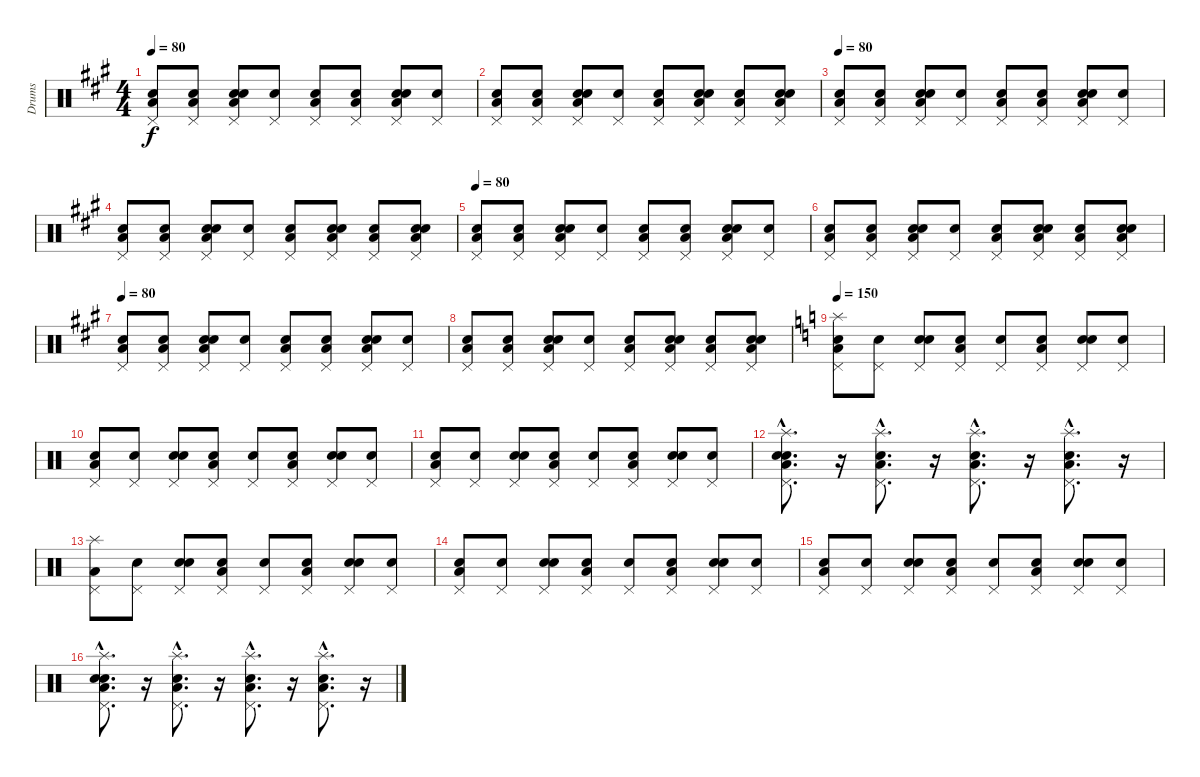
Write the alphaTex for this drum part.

\track ("Drums" "Drums") {instrument percussion}
\staff {score}
\articulation defaults
\ts (4 4)
\tempo 80
\clef neutral
\ks f#minor
("Snare (hit)" "Low Floor Tom (hit)" "Pedal Hi-Hat (hit)").8{dy f} ("Snare (hit)" "Low Floor Tom (hit)" "Pedal Hi-Hat (hit)").8 ("Snare (hit)" "Electric Snare (hit)" "Low Floor Tom (hit)" "Pedal Hi-Hat (hit)").8 ("Snare (hit)" "Pedal Hi-Hat (hit)").8 ("Snare (hit)" "Low Floor Tom (hit)" "Pedal Hi-Hat (hit)").8 ("Snare (hit)" "Low Floor Tom (hit)" "Pedal Hi-Hat (hit)").8 ("Snare (hit)" "Electric Snare (hit)" "Low Floor Tom (hit)" "Pedal Hi-Hat (hit)").8 ("Snare (hit)" "Pedal Hi-Hat (hit)").8 |
("Snare (hit)" "Low Floor Tom (hit)" "Pedal Hi-Hat (hit)").8 ("Snare (hit)" "Low Floor Tom (hit)" "Pedal Hi-Hat (hit)").8 ("Snare (hit)" "Electric Snare (hit)" "Low Floor Tom (hit)" "Pedal Hi-Hat (hit)").8 ("Snare (hit)" "Pedal Hi-Hat (hit)").8 ("Snare (hit)" "Low Floor Tom (hit)" "Pedal Hi-Hat (hit)").8 ("Snare (hit)" "Electric Snare (hit)" "Low Floor Tom (hit)" "Pedal Hi-Hat (hit)").8 ("Snare (hit)" "Low Floor Tom (hit)" "Pedal Hi-Hat (hit)").8 ("Snare (hit)" "Electric Snare (hit)" "Low Floor Tom (hit)" "Pedal Hi-Hat (hit)").8 |
\tempo 80
("Snare (hit)" "Low Floor Tom (hit)" "Pedal Hi-Hat (hit)").8 ("Snare (hit)" "Low Floor Tom (hit)" "Pedal Hi-Hat (hit)").8 ("Snare (hit)" "Electric Snare (hit)" "Low Floor Tom (hit)" "Pedal Hi-Hat (hit)").8 ("Snare (hit)" "Pedal Hi-Hat (hit)").8 ("Snare (hit)" "Low Floor Tom (hit)" "Pedal Hi-Hat (hit)").8 ("Snare (hit)" "Low Floor Tom (hit)" "Pedal Hi-Hat (hit)").8 ("Snare (hit)" "Electric Snare (hit)" "Low Floor Tom (hit)" "Pedal Hi-Hat (hit)").8 ("Snare (hit)" "Pedal Hi-Hat (hit)").8 |
("Snare (hit)" "Low Floor Tom (hit)" "Pedal Hi-Hat (hit)").8 ("Snare (hit)" "Low Floor Tom (hit)" "Pedal Hi-Hat (hit)").8 ("Snare (hit)" "Electric Snare (hit)" "Low Floor Tom (hit)" "Pedal Hi-Hat (hit)").8 ("Snare (hit)" "Pedal Hi-Hat (hit)").8 ("Snare (hit)" "Low Floor Tom (hit)" "Pedal Hi-Hat (hit)").8 ("Snare (hit)" "Electric Snare (hit)" "Low Floor Tom (hit)" "Pedal Hi-Hat (hit)").8 ("Snare (hit)" "Low Floor Tom (hit)" "Pedal Hi-Hat (hit)").8 ("Snare (hit)" "Electric Snare (hit)" "Low Floor Tom (hit)" "Pedal Hi-Hat (hit)").8 |
\tempo 80
("Snare (hit)" "Low Floor Tom (hit)" "Pedal Hi-Hat (hit)").8 ("Snare (hit)" "Low Floor Tom (hit)" "Pedal Hi-Hat (hit)").8 ("Snare (hit)" "Electric Snare (hit)" "Low Floor Tom (hit)" "Pedal Hi-Hat (hit)").8 ("Snare (hit)" "Pedal Hi-Hat (hit)").8 ("Snare (hit)" "Low Floor Tom (hit)" "Pedal Hi-Hat (hit)").8 ("Snare (hit)" "Low Floor Tom (hit)" "Pedal Hi-Hat (hit)").8 ("Snare (hit)" "Electric Snare (hit)" "Low Floor Tom (hit)" "Pedal Hi-Hat (hit)").8 ("Snare (hit)" "Pedal Hi-Hat (hit)").8 |
("Snare (hit)" "Low Floor Tom (hit)" "Pedal Hi-Hat (hit)").8 ("Snare (hit)" "Low Floor Tom (hit)" "Pedal Hi-Hat (hit)").8 ("Snare (hit)" "Electric Snare (hit)" "Low Floor Tom (hit)" "Pedal Hi-Hat (hit)").8 ("Snare (hit)" "Pedal Hi-Hat (hit)").8 ("Snare (hit)" "Low Floor Tom (hit)" "Pedal Hi-Hat (hit)").8 ("Snare (hit)" "Electric Snare (hit)" "Low Floor Tom (hit)" "Pedal Hi-Hat (hit)").8 ("Snare (hit)" "Low Floor Tom (hit)" "Pedal Hi-Hat (hit)").8 ("Snare (hit)" "Electric Snare (hit)" "Low Floor Tom (hit)" "Pedal Hi-Hat (hit)").8 |
\tempo 80
("Snare (hit)" "Low Floor Tom (hit)" "Pedal Hi-Hat (hit)").8 ("Snare (hit)" "Low Floor Tom (hit)" "Pedal Hi-Hat (hit)").8 ("Snare (hit)" "Electric Snare (hit)" "Low Floor Tom (hit)" "Pedal Hi-Hat (hit)").8 ("Snare (hit)" "Pedal Hi-Hat (hit)").8 ("Snare (hit)" "Low Floor Tom (hit)" "Pedal Hi-Hat (hit)").8 ("Snare (hit)" "Low Floor Tom (hit)" "Pedal Hi-Hat (hit)").8 ("Snare (hit)" "Electric Snare (hit)" "Low Floor Tom (hit)" "Pedal Hi-Hat (hit)").8 ("Snare (hit)" "Pedal Hi-Hat (hit)").8 |
("Snare (hit)" "Low Floor Tom (hit)" "Pedal Hi-Hat (hit)").8 ("Snare (hit)" "Low Floor Tom (hit)" "Pedal Hi-Hat (hit)").8 ("Snare (hit)" "Electric Snare (hit)" "Low Floor Tom (hit)" "Pedal Hi-Hat (hit)").8 ("Snare (hit)" "Pedal Hi-Hat (hit)").8 ("Snare (hit)" "Low Floor Tom (hit)" "Pedal Hi-Hat (hit)").8 ("Snare (hit)" "Electric Snare (hit)" "Low Floor Tom (hit)" "Pedal Hi-Hat (hit)").8 ("Snare (hit)" "Low Floor Tom (hit)" "Pedal Hi-Hat (hit)").8 ("Snare (hit)" "Electric Snare (hit)" "Low Floor Tom (hit)" "Pedal Hi-Hat (hit)").8 |
\tempo 150
\ks c
("Snare (hit)" "Low Floor Tom (hit)" "Pedal Hi-Hat (hit)" "Splash (hit)").8 ("Snare (hit)" "Pedal Hi-Hat (hit)").8 ("Snare (hit)" "Electric Snare (hit)" "Pedal Hi-Hat (hit)").8 ("Snare (hit)" "Low Floor Tom (hit)" "Pedal Hi-Hat (hit)").8 ("Snare (hit)" "Pedal Hi-Hat (hit)").8 ("Snare (hit)" "Low Floor Tom (hit)" "Pedal Hi-Hat (hit)").8 ("Snare (hit)" "Electric Snare (hit)" "Pedal Hi-Hat (hit)").8 ("Snare (hit)" "Pedal Hi-Hat (hit)").8 |
("Snare (hit)" "Low Floor Tom (hit)" "Pedal Hi-Hat (hit)").8 ("Snare (hit)" "Pedal Hi-Hat (hit)").8 ("Snare (hit)" "Electric Snare (hit)" "Pedal Hi-Hat (hit)").8 ("Snare (hit)" "Low Floor Tom (hit)" "Pedal Hi-Hat (hit)").8 ("Snare (hit)" "Pedal Hi-Hat (hit)").8 ("Snare (hit)" "Low Floor Tom (hit)" "Pedal Hi-Hat (hit)").8 ("Snare (hit)" "Electric Snare (hit)" "Pedal Hi-Hat (hit)").8 ("Snare (hit)" "Pedal Hi-Hat (hit)").8 |
("Snare (hit)" "Low Floor Tom (hit)" "Pedal Hi-Hat (hit)").8 ("Snare (hit)" "Pedal Hi-Hat (hit)").8 ("Snare (hit)" "Electric Snare (hit)" "Pedal Hi-Hat (hit)").8 ("Snare (hit)" "Low Floor Tom (hit)" "Pedal Hi-Hat (hit)").8 ("Snare (hit)" "Pedal Hi-Hat (hit)").8 ("Snare (hit)" "Low Floor Tom (hit)" "Pedal Hi-Hat (hit)").8 ("Snare (hit)" "Electric Snare (hit)" "Pedal Hi-Hat (hit)").8 ("Snare (hit)" "Pedal Hi-Hat (hit)").8 |
("Snare (hit)"{hac} "Electric Snare (hit)"{hac} "Low Floor Tom (hit)"{hac} "Pedal Hi-Hat (hit)"{hac} "Splash (hit)"{hac}).8{d} r.16 ("Electric Snare (hit)"{hac} "Low Floor Tom (hit)"{hac} "Pedal Hi-Hat (hit)"{hac} "Splash (hit)"{hac}).8{d} r.16 ("Electric Snare (hit)"{hac} "Low Floor Tom (hit)"{hac} "Pedal Hi-Hat (hit)"{hac} "Splash (hit)"{hac}).8{d} r.16 ("Electric Snare (hit)"{hac} "Low Floor Tom (hit)"{hac} "Pedal Hi-Hat (hit)"{hac} "Splash (hit)"{hac}).8{d} r.16 |
("Low Floor Tom (hit)" "Pedal Hi-Hat (hit)" "Splash (hit)").8 ("Snare (hit)" "Pedal Hi-Hat (hit)").8 ("Snare (hit)" "Electric Snare (hit)" "Pedal Hi-Hat (hit)").8 ("Snare (hit)" "Low Floor Tom (hit)" "Pedal Hi-Hat (hit)").8 ("Snare (hit)" "Pedal Hi-Hat (hit)").8 ("Snare (hit)" "Low Floor Tom (hit)" "Pedal Hi-Hat (hit)").8 ("Snare (hit)" "Electric Snare (hit)" "Pedal Hi-Hat (hit)").8 ("Snare (hit)" "Pedal Hi-Hat (hit)").8 |
("Snare (hit)" "Low Floor Tom (hit)" "Pedal Hi-Hat (hit)").8 ("Snare (hit)" "Pedal Hi-Hat (hit)").8 ("Snare (hit)" "Electric Snare (hit)" "Pedal Hi-Hat (hit)").8 ("Snare (hit)" "Low Floor Tom (hit)" "Pedal Hi-Hat (hit)").8 ("Snare (hit)" "Pedal Hi-Hat (hit)").8 ("Snare (hit)" "Low Floor Tom (hit)" "Pedal Hi-Hat (hit)").8 ("Snare (hit)" "Electric Snare (hit)" "Pedal Hi-Hat (hit)").8 ("Snare (hit)" "Pedal Hi-Hat (hit)").8 |
("Snare (hit)" "Low Floor Tom (hit)" "Pedal Hi-Hat (hit)").8 ("Snare (hit)" "Pedal Hi-Hat (hit)").8 ("Snare (hit)" "Electric Snare (hit)" "Pedal Hi-Hat (hit)").8 ("Snare (hit)" "Low Floor Tom (hit)" "Pedal Hi-Hat (hit)").8 ("Snare (hit)" "Pedal Hi-Hat (hit)").8 ("Snare (hit)" "Low Floor Tom (hit)" "Pedal Hi-Hat (hit)").8 ("Snare (hit)" "Electric Snare (hit)" "Pedal Hi-Hat (hit)").8 ("Snare (hit)" "Pedal Hi-Hat (hit)").8 |
("Snare (hit)"{hac} "Electric Snare (hit)"{hac} "Low Floor Tom (hit)"{hac} "Pedal Hi-Hat (hit)"{hac} "Splash (hit)"{hac}).8{d} r.16 ("Electric Snare (hit)"{hac} "Low Floor Tom (hit)"{hac} "Pedal Hi-Hat (hit)"{hac} "Splash (hit)"{hac}).8{d} r.16 ("Electric Snare (hit)"{hac} "Low Floor Tom (hit)"{hac} "Pedal Hi-Hat (hit)"{hac} "Splash (hit)"{hac}).8{d} r.16 ("Electric Snare (hit)"{hac} "Low Floor Tom (hit)"{hac} "Pedal Hi-Hat (hit)"{hac} "Splash (hit)"{hac}).8{d} r.16
